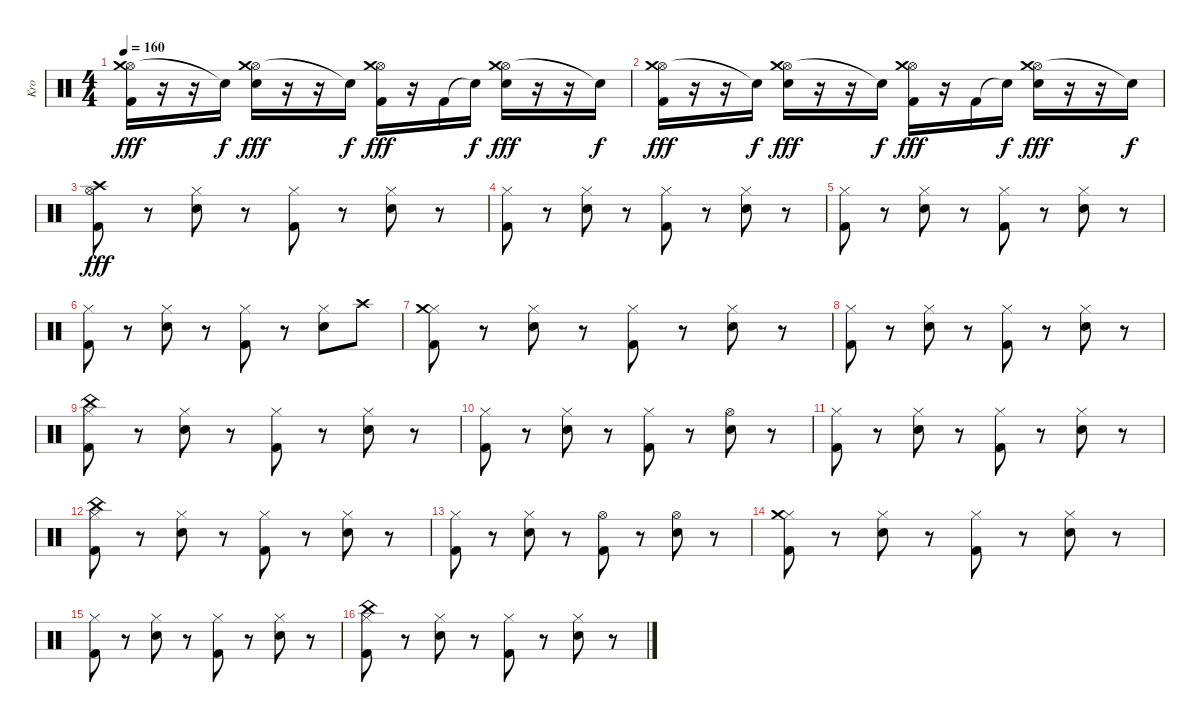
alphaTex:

\track ("Kro" "Kro") {instrument percussion}
\staff {score}
\articulation defaults
\ts (4 4)
\tempo 160
\clef neutral
\ks c
("Hi-Hat (open)" "Kick (hit) 2" "Crash medium (hit)").16{dy fff} r.16 r.16 "Snare (hit)"{t}.16{dy f} ("Hi-Hat (open)" "Snare (hit) 2" "Crash medium (hit)").16{dy fff} r.16 r.16 "Snare (hit)"{t}.16{dy f} ("Hi-Hat (open)" "Kick (hit) 2" "Crash medium (hit)").16{dy fff} r.16 "Kick (hit) 2".16 "Snare (hit)"{t}.16{dy f} ("Hi-Hat (open)" "Snare (hit) 2" "Crash medium (hit)").16{dy fff} r.16 r.16 "Snare (hit)"{t}.16{dy f} |
("Hi-Hat (open)" "Kick (hit) 2" "Crash medium (hit)").16{dy fff} r.16 r.16 "Snare (hit)"{t}.16{dy f} ("Hi-Hat (open)" "Snare (hit) 2" "Crash medium (hit)").16{dy fff} r.16 r.16 "Snare (hit)"{t}.16{dy f} ("Hi-Hat (open)" "Kick (hit) 2" "Crash medium (hit)").16{dy fff} r.16 "Kick (hit) 2".16 "Snare (hit)"{t}.16{dy f} ("Hi-Hat (open)" "Snare (hit) 2" "Crash medium (hit)").16{dy fff} r.16 r.16 "Snare (hit)"{t}.16{dy f} |
("Hi-Hat (open)" "Kick (hit) 2" "Crash high (hit)").8{dy fff} r.8 ("Hi-Hat (closed)" "Snare (hit) 2").8 r.8 ("Hi-Hat (closed)" "Kick (hit) 2").8 r.8 ("Hi-Hat (closed)" "Snare (hit) 2").8 r.8 |
("Hi-Hat (closed)" "Kick (hit) 2").8 r.8 ("Hi-Hat (closed)" "Snare (hit) 2").8 r.8 ("Hi-Hat (closed)" "Kick (hit) 2").8 r.8 ("Hi-Hat (closed)" "Snare (hit) 2").8 r.8 |
("Hi-Hat (closed)" "Kick (hit) 2").8 r.8 ("Hi-Hat (closed)" "Snare (hit) 2").8 r.8 ("Hi-Hat (closed)" "Kick (hit) 2").8 r.8 ("Hi-Hat (closed)" "Snare (hit) 2").8 r.8 |
("Hi-Hat (closed)" "Kick (hit) 2").8 r.8 ("Hi-Hat (closed)" "Snare (hit) 2").8 r.8 ("Hi-Hat (closed)" "Kick (hit) 2").8 r.8 ("Hi-Hat (closed)" "Snare (hit) 2").8 "Crash high (hit)".8 |
("Hi-Hat (closed)" "Kick (hit) 2" "Crash medium (hit)").8 r.8 ("Hi-Hat (closed)" "Snare (hit) 2").8 r.8 ("Hi-Hat (closed)" "Kick (hit) 2").8 r.8 ("Hi-Hat (closed)" "Snare (hit) 2").8 r.8 |
("Hi-Hat (closed)" "Kick (hit) 2").8 r.8 ("Hi-Hat (closed)" "Snare (hit) 2").8 r.8 ("Hi-Hat (closed)" "Kick (hit) 2").8 r.8 ("Hi-Hat (closed)" "Snare (hit) 2").8 r.8 |
("Hi-Hat (closed)" "Kick (hit) 2" "China (hit)").8 r.8 ("Hi-Hat (closed)" "Snare (hit) 2").8 r.8 ("Hi-Hat (closed)" "Kick (hit) 2").8 r.8 ("Hi-Hat (closed)" "Snare (hit) 2").8 r.8 |
("Hi-Hat (closed)" "Kick (hit) 2").8 r.8 ("Hi-Hat (closed)" "Snare (hit) 2").8 r.8 ("Hi-Hat (closed)" "Kick (hit) 2").8 r.8 ("Hi-Hat (open)" "Snare (hit) 2").8 r.8 |
("Hi-Hat (closed)" "Kick (hit) 2").8 r.8 ("Hi-Hat (closed)" "Snare (hit) 2").8 r.8 ("Hi-Hat (closed)" "Kick (hit) 2").8 r.8 ("Hi-Hat (closed)" "Snare (hit) 2").8 r.8 |
("Hi-Hat (closed)" "Kick (hit) 2" "China (hit)").8 r.8 ("Hi-Hat (closed)" "Snare (hit) 2").8 r.8 ("Hi-Hat (closed)" "Kick (hit) 2").8 r.8 ("Hi-Hat (closed)" "Snare (hit) 2").8 r.8 |
("Hi-Hat (closed)" "Kick (hit) 2").8 r.8 ("Hi-Hat (closed)" "Snare (hit) 2").8 r.8 ("Hi-Hat (open)" "Kick (hit) 2").8 r.8 ("Hi-Hat (open)" "Snare (hit) 2").8 r.8 |
("Hi-Hat (closed)" "Kick (hit) 2" "Crash medium (hit)").8 r.8 ("Hi-Hat (closed)" "Snare (hit) 2").8 r.8 ("Hi-Hat (closed)" "Kick (hit) 2").8 r.8 ("Hi-Hat (closed)" "Snare (hit) 2").8 r.8 |
("Hi-Hat (closed)" "Kick (hit) 2").8 r.8 ("Hi-Hat (closed)" "Snare (hit) 2").8 r.8 ("Hi-Hat (closed)" "Kick (hit) 2").8 r.8 ("Hi-Hat (closed)" "Snare (hit) 2").8 r.8 |
("Hi-Hat (closed)" "Kick (hit) 2" "China (hit)").8 r.8 ("Hi-Hat (closed)" "Snare (hit) 2").8 r.8 ("Hi-Hat (closed)" "Kick (hit) 2").8 r.8 ("Hi-Hat (closed)" "Snare (hit) 2").8 r.8
